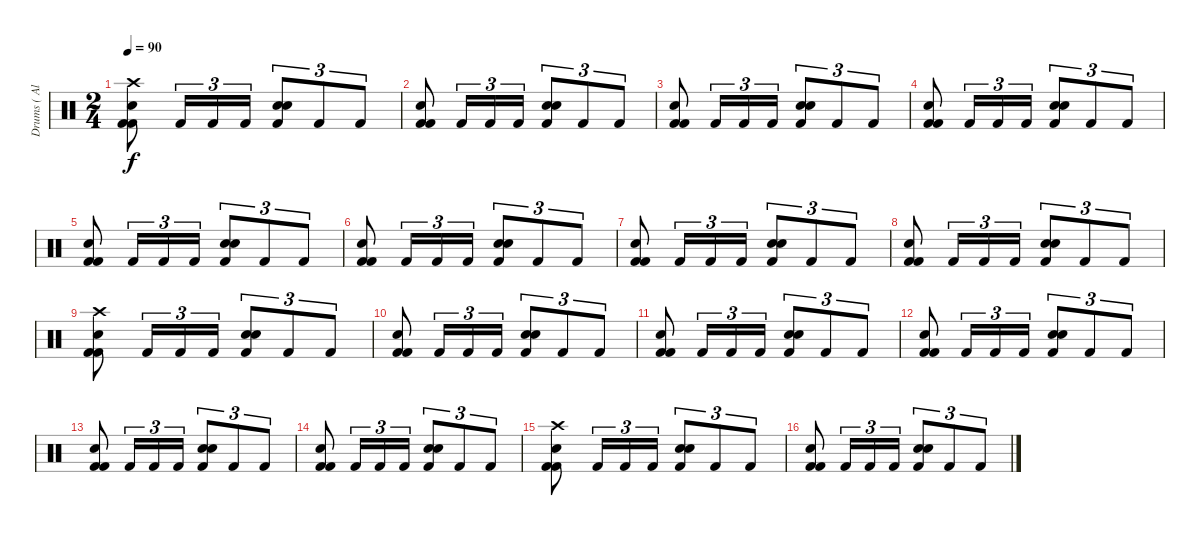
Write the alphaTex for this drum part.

\track ("Drums ( Alex Holzwarth)" "Drums ( Al") {instrument percussion}
\staff {score}
\articulation defaults
\ts (2 4)
\tempo 90
\clef neutral
\ks c
("Crash high (hit)" "Snare (hit) 2" "Kick (hit) 2" "Kick (hit) 2").8{dy f} "Kick (hit) 2".16{tu (3 2)} "Kick (hit) 2".16{tu (3 2)} "Kick (hit) 2".16{tu (3 2)} ("Electric Snare (hit)" "Snare (hit) 2" "Kick (hit) 2").8{tu (3 2)} "Kick (hit) 2".8{tu (3 2)} "Kick (hit) 2".8{tu (3 2)} |
("Snare (hit) 2" "Kick (hit) 2" "Kick (hit) 2").8 "Kick (hit) 2".16{tu (3 2)} "Kick (hit) 2".16{tu (3 2)} "Kick (hit) 2".16{tu (3 2)} ("Electric Snare (hit)" "Snare (hit) 2" "Kick (hit) 2").8{tu (3 2)} "Kick (hit) 2".8{tu (3 2)} "Kick (hit) 2".8{tu (3 2)} |
("Snare (hit) 2" "Kick (hit) 2" "Kick (hit) 2").8 "Kick (hit) 2".16{tu (3 2)} "Kick (hit) 2".16{tu (3 2)} "Kick (hit) 2".16{tu (3 2)} ("Electric Snare (hit)" "Snare (hit) 2" "Kick (hit) 2").8{tu (3 2)} "Kick (hit) 2".8{tu (3 2)} "Kick (hit) 2".8{tu (3 2)} |
("Snare (hit) 2" "Kick (hit) 2" "Kick (hit) 2").8 "Kick (hit) 2".16{tu (3 2)} "Kick (hit) 2".16{tu (3 2)} "Kick (hit) 2".16{tu (3 2)} ("Electric Snare (hit)" "Snare (hit) 2" "Kick (hit) 2").8{tu (3 2)} "Kick (hit) 2".8{tu (3 2)} "Kick (hit) 2".8{tu (3 2)} |
("Snare (hit) 2" "Kick (hit) 2" "Kick (hit) 2").8 "Kick (hit) 2".16{tu (3 2)} "Kick (hit) 2".16{tu (3 2)} "Kick (hit) 2".16{tu (3 2)} ("Electric Snare (hit)" "Snare (hit) 2" "Kick (hit) 2").8{tu (3 2)} "Kick (hit) 2".8{tu (3 2)} "Kick (hit) 2".8{tu (3 2)} |
("Snare (hit) 2" "Kick (hit) 2" "Kick (hit) 2").8 "Kick (hit) 2".16{tu (3 2)} "Kick (hit) 2".16{tu (3 2)} "Kick (hit) 2".16{tu (3 2)} ("Electric Snare (hit)" "Snare (hit) 2" "Kick (hit) 2").8{tu (3 2)} "Kick (hit) 2".8{tu (3 2)} "Kick (hit) 2".8{tu (3 2)} |
("Snare (hit) 2" "Kick (hit) 2" "Kick (hit) 2").8 "Kick (hit) 2".16{tu (3 2)} "Kick (hit) 2".16{tu (3 2)} "Kick (hit) 2".16{tu (3 2)} ("Electric Snare (hit)" "Snare (hit) 2" "Kick (hit) 2").8{tu (3 2)} "Kick (hit) 2".8{tu (3 2)} "Kick (hit) 2".8{tu (3 2)} |
("Snare (hit) 2" "Kick (hit) 2" "Kick (hit) 2").8 "Kick (hit) 2".16{tu (3 2)} "Kick (hit) 2".16{tu (3 2)} "Kick (hit) 2".16{tu (3 2)} ("Electric Snare (hit)" "Snare (hit) 2" "Kick (hit) 2").8{tu (3 2)} "Kick (hit) 2".8{tu (3 2)} "Kick (hit) 2".8{tu (3 2)} |
("Crash high (hit)" "Snare (hit) 2" "Kick (hit) 2" "Kick (hit) 2").8 "Kick (hit) 2".16{tu (3 2)} "Kick (hit) 2".16{tu (3 2)} "Kick (hit) 2".16{tu (3 2)} ("Electric Snare (hit)" "Snare (hit) 2" "Kick (hit) 2").8{tu (3 2)} "Kick (hit) 2".8{tu (3 2)} "Kick (hit) 2".8{tu (3 2)} |
("Snare (hit) 2" "Kick (hit) 2" "Kick (hit) 2").8 "Kick (hit) 2".16{tu (3 2)} "Kick (hit) 2".16{tu (3 2)} "Kick (hit) 2".16{tu (3 2)} ("Electric Snare (hit)" "Snare (hit) 2" "Kick (hit) 2").8{tu (3 2)} "Kick (hit) 2".8{tu (3 2)} "Kick (hit) 2".8{tu (3 2)} |
("Snare (hit) 2" "Kick (hit) 2" "Kick (hit) 2").8 "Kick (hit) 2".16{tu (3 2)} "Kick (hit) 2".16{tu (3 2)} "Kick (hit) 2".16{tu (3 2)} ("Electric Snare (hit)" "Snare (hit) 2" "Kick (hit) 2").8{tu (3 2)} "Kick (hit) 2".8{tu (3 2)} "Kick (hit) 2".8{tu (3 2)} |
("Snare (hit) 2" "Kick (hit) 2" "Kick (hit) 2").8 "Kick (hit) 2".16{tu (3 2)} "Kick (hit) 2".16{tu (3 2)} "Kick (hit) 2".16{tu (3 2)} ("Electric Snare (hit)" "Snare (hit) 2" "Kick (hit) 2").8{tu (3 2)} "Kick (hit) 2".8{tu (3 2)} "Kick (hit) 2".8{tu (3 2)} |
("Snare (hit) 2" "Kick (hit) 2" "Kick (hit) 2").8 "Kick (hit) 2".16{tu (3 2)} "Kick (hit) 2".16{tu (3 2)} "Kick (hit) 2".16{tu (3 2)} ("Electric Snare (hit)" "Snare (hit) 2" "Kick (hit) 2").8{tu (3 2)} "Kick (hit) 2".8{tu (3 2)} "Kick (hit) 2".8{tu (3 2)} |
("Snare (hit) 2" "Kick (hit) 2" "Kick (hit) 2").8 "Kick (hit) 2".16{tu (3 2)} "Kick (hit) 2".16{tu (3 2)} "Kick (hit) 2".16{tu (3 2)} ("Electric Snare (hit)" "Snare (hit) 2" "Kick (hit) 2").8{tu (3 2)} "Kick (hit) 2".8{tu (3 2)} "Kick (hit) 2".8{tu (3 2)} |
("Crash high (hit)" "Snare (hit) 2" "Kick (hit) 2" "Kick (hit) 2").8 "Kick (hit) 2".16{tu (3 2)} "Kick (hit) 2".16{tu (3 2)} "Kick (hit) 2".16{tu (3 2)} ("Electric Snare (hit)" "Snare (hit) 2" "Kick (hit) 2").8{tu (3 2)} "Kick (hit) 2".8{tu (3 2)} "Kick (hit) 2".8{tu (3 2)} |
("Snare (hit) 2" "Kick (hit) 2" "Kick (hit) 2").8 "Kick (hit) 2".16{tu (3 2)} "Kick (hit) 2".16{tu (3 2)} "Kick (hit) 2".16{tu (3 2)} ("Electric Snare (hit)" "Snare (hit) 2" "Kick (hit) 2").8{tu (3 2)} "Kick (hit) 2".8{tu (3 2)} "Kick (hit) 2".8{tu (3 2)}
